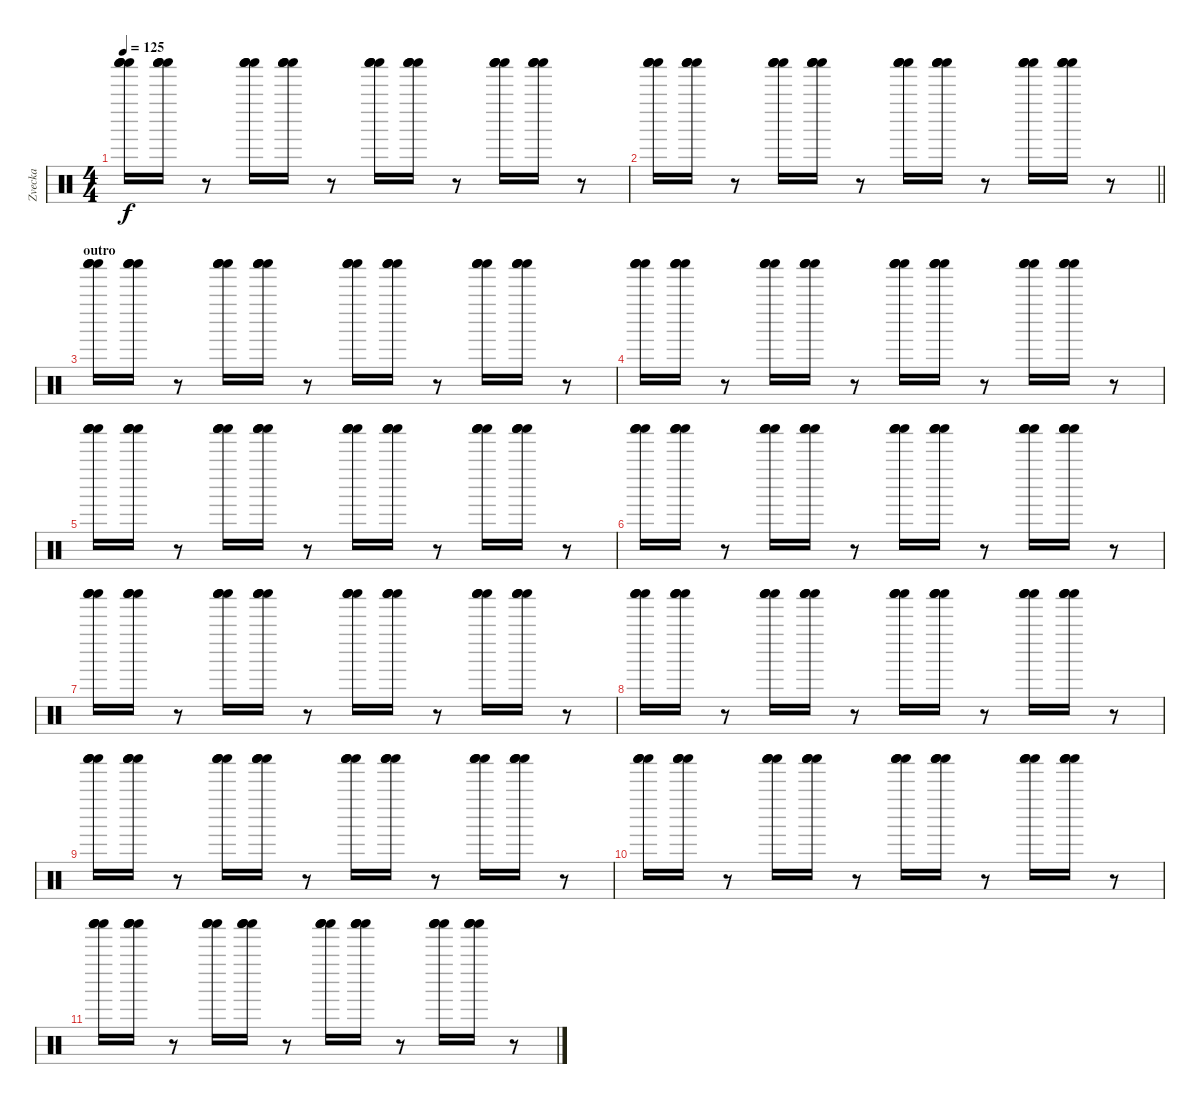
\track ("Zvecka " "Zvecka ") {instrument percussion}
\staff {score}
\articulation defaults
\ts (4 4)
\tempo 125
\clef neutral
\ks c
("Shaker (hit)" "Shaker (hit)" "Shaker (hit)" "Shaker (hit)").16{dy f} ("Shaker (hit)" "Shaker (hit)" "Shaker (hit)" "Shaker (hit)").16 r.8 ("Shaker (hit)" "Shaker (hit)" "Shaker (hit)" "Shaker (hit)").16 ("Shaker (hit)" "Shaker (hit)" "Shaker (hit)" "Shaker (hit)").16 r.8 ("Shaker (hit)" "Shaker (hit)" "Shaker (hit)" "Shaker (hit)").16 ("Shaker (hit)" "Shaker (hit)" "Shaker (hit)" "Shaker (hit)").16 r.8 ("Shaker (hit)" "Shaker (hit)" "Shaker (hit)" "Shaker (hit)").16 ("Shaker (hit)" "Shaker (hit)" "Shaker (hit)" "Shaker (hit)").16 r.8 |
\barLineRight lightlight
("Shaker (hit)" "Shaker (hit)" "Shaker (hit)" "Shaker (hit)").16 ("Shaker (hit)" "Shaker (hit)" "Shaker (hit)" "Shaker (hit)").16 r.8 ("Shaker (hit)" "Shaker (hit)" "Shaker (hit)" "Shaker (hit)").16 ("Shaker (hit)" "Shaker (hit)" "Shaker (hit)" "Shaker (hit)").16 r.8 ("Shaker (hit)" "Shaker (hit)" "Shaker (hit)" "Shaker (hit)").16 ("Shaker (hit)" "Shaker (hit)" "Shaker (hit)" "Shaker (hit)").16 r.8 ("Shaker (hit)" "Shaker (hit)" "Shaker (hit)" "Shaker (hit)").16 ("Shaker (hit)" "Shaker (hit)" "Shaker (hit)" "Shaker (hit)").16 r.8 |
\section ("" "outro")
("Shaker (hit)" "Shaker (hit)" "Shaker (hit)" "Shaker (hit)").16 ("Shaker (hit)" "Shaker (hit)" "Shaker (hit)" "Shaker (hit)").16 r.8 ("Shaker (hit)" "Shaker (hit)" "Shaker (hit)" "Shaker (hit)").16 ("Shaker (hit)" "Shaker (hit)" "Shaker (hit)" "Shaker (hit)").16 r.8 ("Shaker (hit)" "Shaker (hit)" "Shaker (hit)" "Shaker (hit)").16 ("Shaker (hit)" "Shaker (hit)" "Shaker (hit)" "Shaker (hit)").16 r.8 ("Shaker (hit)" "Shaker (hit)" "Shaker (hit)" "Shaker (hit)").16 ("Shaker (hit)" "Shaker (hit)" "Shaker (hit)" "Shaker (hit)").16 r.8 |
("Shaker (hit)" "Shaker (hit)" "Shaker (hit)" "Shaker (hit)").16 ("Shaker (hit)" "Shaker (hit)" "Shaker (hit)" "Shaker (hit)").16 r.8 ("Shaker (hit)" "Shaker (hit)" "Shaker (hit)" "Shaker (hit)").16 ("Shaker (hit)" "Shaker (hit)" "Shaker (hit)" "Shaker (hit)").16 r.8 ("Shaker (hit)" "Shaker (hit)" "Shaker (hit)" "Shaker (hit)").16 ("Shaker (hit)" "Shaker (hit)" "Shaker (hit)" "Shaker (hit)").16 r.8 ("Shaker (hit)" "Shaker (hit)" "Shaker (hit)" "Shaker (hit)").16 ("Shaker (hit)" "Shaker (hit)" "Shaker (hit)" "Shaker (hit)").16 r.8 |
("Shaker (hit)" "Shaker (hit)" "Shaker (hit)" "Shaker (hit)").16 ("Shaker (hit)" "Shaker (hit)" "Shaker (hit)" "Shaker (hit)").16 r.8 ("Shaker (hit)" "Shaker (hit)" "Shaker (hit)" "Shaker (hit)").16 ("Shaker (hit)" "Shaker (hit)" "Shaker (hit)" "Shaker (hit)").16 r.8 ("Shaker (hit)" "Shaker (hit)" "Shaker (hit)" "Shaker (hit)").16 ("Shaker (hit)" "Shaker (hit)" "Shaker (hit)" "Shaker (hit)").16 r.8 ("Shaker (hit)" "Shaker (hit)" "Shaker (hit)" "Shaker (hit)").16 ("Shaker (hit)" "Shaker (hit)" "Shaker (hit)" "Shaker (hit)").16 r.8 |
("Shaker (hit)" "Shaker (hit)" "Shaker (hit)" "Shaker (hit)").16 ("Shaker (hit)" "Shaker (hit)" "Shaker (hit)" "Shaker (hit)").16 r.8 ("Shaker (hit)" "Shaker (hit)" "Shaker (hit)" "Shaker (hit)").16 ("Shaker (hit)" "Shaker (hit)" "Shaker (hit)" "Shaker (hit)").16 r.8 ("Shaker (hit)" "Shaker (hit)" "Shaker (hit)" "Shaker (hit)").16 ("Shaker (hit)" "Shaker (hit)" "Shaker (hit)" "Shaker (hit)").16 r.8 ("Shaker (hit)" "Shaker (hit)" "Shaker (hit)" "Shaker (hit)").16 ("Shaker (hit)" "Shaker (hit)" "Shaker (hit)" "Shaker (hit)").16 r.8 |
("Shaker (hit)" "Shaker (hit)" "Shaker (hit)" "Shaker (hit)").16 ("Shaker (hit)" "Shaker (hit)" "Shaker (hit)" "Shaker (hit)").16 r.8 ("Shaker (hit)" "Shaker (hit)" "Shaker (hit)" "Shaker (hit)").16 ("Shaker (hit)" "Shaker (hit)" "Shaker (hit)" "Shaker (hit)").16 r.8 ("Shaker (hit)" "Shaker (hit)" "Shaker (hit)" "Shaker (hit)").16 ("Shaker (hit)" "Shaker (hit)" "Shaker (hit)" "Shaker (hit)").16 r.8 ("Shaker (hit)" "Shaker (hit)" "Shaker (hit)" "Shaker (hit)").16 ("Shaker (hit)" "Shaker (hit)" "Shaker (hit)" "Shaker (hit)").16 r.8 |
("Shaker (hit)" "Shaker (hit)" "Shaker (hit)" "Shaker (hit)").16 ("Shaker (hit)" "Shaker (hit)" "Shaker (hit)" "Shaker (hit)").16 r.8 ("Shaker (hit)" "Shaker (hit)" "Shaker (hit)" "Shaker (hit)").16 ("Shaker (hit)" "Shaker (hit)" "Shaker (hit)" "Shaker (hit)").16 r.8 ("Shaker (hit)" "Shaker (hit)" "Shaker (hit)" "Shaker (hit)").16 ("Shaker (hit)" "Shaker (hit)" "Shaker (hit)" "Shaker (hit)").16 r.8 ("Shaker (hit)" "Shaker (hit)" "Shaker (hit)" "Shaker (hit)").16 ("Shaker (hit)" "Shaker (hit)" "Shaker (hit)" "Shaker (hit)").16 r.8 |
("Shaker (hit)" "Shaker (hit)" "Shaker (hit)" "Shaker (hit)").16 ("Shaker (hit)" "Shaker (hit)" "Shaker (hit)" "Shaker (hit)").16 r.8 ("Shaker (hit)" "Shaker (hit)" "Shaker (hit)" "Shaker (hit)").16 ("Shaker (hit)" "Shaker (hit)" "Shaker (hit)" "Shaker (hit)").16 r.8 ("Shaker (hit)" "Shaker (hit)" "Shaker (hit)" "Shaker (hit)").16 ("Shaker (hit)" "Shaker (hit)" "Shaker (hit)" "Shaker (hit)").16 r.8 ("Shaker (hit)" "Shaker (hit)" "Shaker (hit)" "Shaker (hit)").16 ("Shaker (hit)" "Shaker (hit)" "Shaker (hit)" "Shaker (hit)").16 r.8 |
("Shaker (hit)" "Shaker (hit)" "Shaker (hit)" "Shaker (hit)").16 ("Shaker (hit)" "Shaker (hit)" "Shaker (hit)" "Shaker (hit)").16 r.8 ("Shaker (hit)" "Shaker (hit)" "Shaker (hit)" "Shaker (hit)").16 ("Shaker (hit)" "Shaker (hit)" "Shaker (hit)" "Shaker (hit)").16 r.8 ("Shaker (hit)" "Shaker (hit)" "Shaker (hit)" "Shaker (hit)").16 ("Shaker (hit)" "Shaker (hit)" "Shaker (hit)" "Shaker (hit)").16 r.8 ("Shaker (hit)" "Shaker (hit)" "Shaker (hit)" "Shaker (hit)").16 ("Shaker (hit)" "Shaker (hit)" "Shaker (hit)" "Shaker (hit)").16 r.8 |
("Shaker (hit)" "Shaker (hit)" "Shaker (hit)" "Shaker (hit)").16 ("Shaker (hit)" "Shaker (hit)" "Shaker (hit)" "Shaker (hit)").16 r.8 ("Shaker (hit)" "Shaker (hit)" "Shaker (hit)" "Shaker (hit)").16 ("Shaker (hit)" "Shaker (hit)" "Shaker (hit)" "Shaker (hit)").16 r.8 ("Shaker (hit)" "Shaker (hit)" "Shaker (hit)" "Shaker (hit)").16 ("Shaker (hit)" "Shaker (hit)" "Shaker (hit)" "Shaker (hit)").16 r.8 ("Shaker (hit)" "Shaker (hit)" "Shaker (hit)" "Shaker (hit)").16 ("Shaker (hit)" "Shaker (hit)" "Shaker (hit)" "Shaker (hit)").16 r.8
